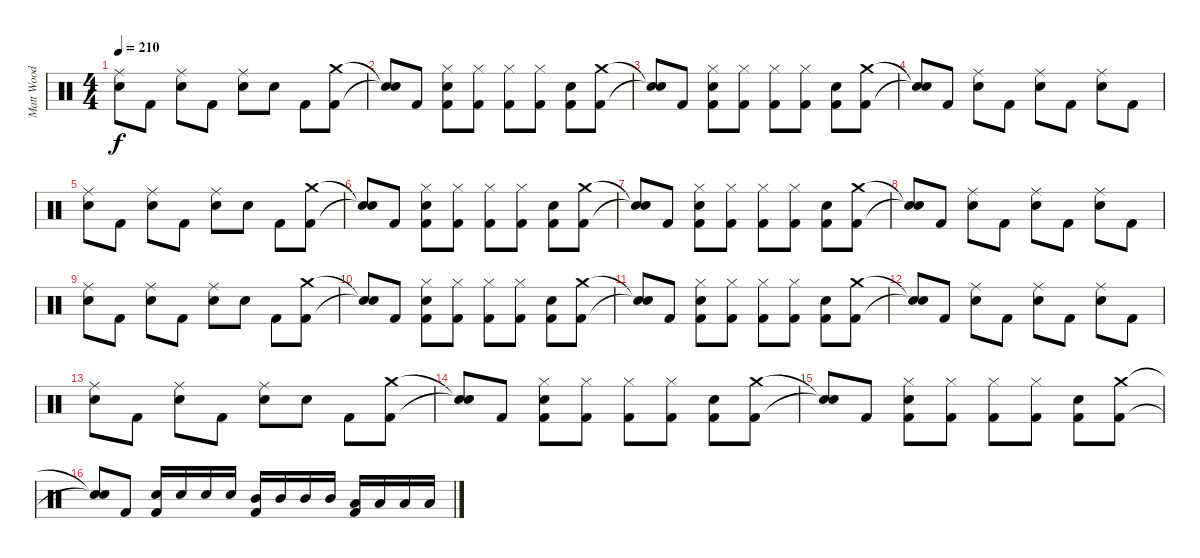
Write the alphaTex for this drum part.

\track ("Matt Wood" "Matt Wood") {instrument percussion}
\staff {score}
\articulation defaults
\ts (4 4)
\tempo 210
\clef neutral
\ks c
("Ride (middle)" "Snare (hit) 2").8{dy f} "Kick (hit) 2".8 ("Ride (middle)" "Snare (hit) 2").8 "Kick (hit) 2".8 ("Ride (middle)" "Snare (hit) 2").8 "Snare (hit) 2".8 "Kick (hit) 2".8 ("Crash medium (hit)" "Kick (hit) 2").8 |
("Snare (hit)"{t} "Snare (hit)"{t}).8 "Kick (hit) 2".8 ("Hi-Hat (closed)" "Snare (hit) 2" "Kick (hit) 2").8 ("Hi-Hat (closed)" "Kick (hit) 2").8 ("Hi-Hat (closed)" "Kick (hit) 2").8 ("Hi-Hat (closed)" "Kick (hit) 2").8 ("Snare (hit) 2" "Kick (hit) 2").8 ("Crash medium (hit)" "Kick (hit) 2").8 |
("Snare (hit)"{t} "Snare (hit)"{t}).8 "Kick (hit) 2".8 ("Hi-Hat (closed)" "Snare (hit) 2" "Kick (hit) 2").8 ("Hi-Hat (closed)" "Kick (hit) 2").8 ("Hi-Hat (closed)" "Kick (hit) 2").8 ("Hi-Hat (closed)" "Kick (hit) 2").8 ("Snare (hit) 2" "Kick (hit) 2").8 ("Crash medium (hit)" "Kick (hit) 2").8 |
("Snare (hit)"{t} "Snare (hit)"{t}).8 "Kick (hit) 2".8 ("Ride (middle)" "Snare (hit) 2").8 "Kick (hit) 2".8 ("Ride (middle)" "Snare (hit) 2").8 "Kick (hit) 2".8 ("Ride (middle)" "Snare (hit) 2").8 "Kick (hit) 2".8 |
("Ride (middle)" "Snare (hit) 2").8 "Kick (hit) 2".8 ("Ride (middle)" "Snare (hit) 2").8 "Kick (hit) 2".8 ("Ride (middle)" "Snare (hit) 2").8 "Snare (hit) 2".8 "Kick (hit) 2".8 ("Crash medium (hit)" "Kick (hit) 2").8 |
("Snare (hit)"{t} "Snare (hit)"{t}).8 "Kick (hit) 2".8 ("Hi-Hat (closed)" "Snare (hit) 2" "Kick (hit) 2").8 ("Hi-Hat (closed)" "Kick (hit) 2").8 ("Hi-Hat (closed)" "Kick (hit) 2").8 ("Hi-Hat (closed)" "Kick (hit) 2").8 ("Snare (hit) 2" "Kick (hit) 2").8 ("Crash medium (hit)" "Kick (hit) 2").8 |
("Snare (hit)"{t} "Snare (hit)"{t}).8 "Kick (hit) 2".8 ("Hi-Hat (closed)" "Snare (hit) 2" "Kick (hit) 2").8 ("Hi-Hat (closed)" "Kick (hit) 2").8 ("Hi-Hat (closed)" "Kick (hit) 2").8 ("Hi-Hat (closed)" "Kick (hit) 2").8 ("Snare (hit) 2" "Kick (hit) 2").8 ("Crash medium (hit)" "Kick (hit) 2").8 |
("Snare (hit)"{t} "Snare (hit)"{t}).8 "Kick (hit) 2".8 ("Ride (middle)" "Snare (hit) 2").8 "Kick (hit) 2".8 ("Ride (middle)" "Snare (hit) 2").8 "Kick (hit) 2".8 ("Ride (middle)" "Snare (hit) 2").8 "Kick (hit) 2".8 |
("Ride (middle)" "Snare (hit) 2").8 "Kick (hit) 2".8 ("Ride (middle)" "Snare (hit) 2").8 "Kick (hit) 2".8 ("Ride (middle)" "Snare (hit) 2").8 "Snare (hit) 2".8 "Kick (hit) 2".8 ("Crash medium (hit)" "Kick (hit) 2").8 |
("Snare (hit)"{t} "Snare (hit)"{t}).8 "Kick (hit) 2".8 ("Hi-Hat (closed)" "Snare (hit) 2" "Kick (hit) 2").8 ("Hi-Hat (closed)" "Kick (hit) 2").8 ("Hi-Hat (closed)" "Kick (hit) 2").8 ("Hi-Hat (closed)" "Kick (hit) 2").8 ("Snare (hit) 2" "Kick (hit) 2").8 ("Crash medium (hit)" "Kick (hit) 2").8 |
("Snare (hit)"{t} "Snare (hit)"{t}).8 "Kick (hit) 2".8 ("Hi-Hat (closed)" "Snare (hit) 2" "Kick (hit) 2").8 ("Hi-Hat (closed)" "Kick (hit) 2").8 ("Hi-Hat (closed)" "Kick (hit) 2").8 ("Hi-Hat (closed)" "Kick (hit) 2").8 ("Snare (hit) 2" "Kick (hit) 2").8 ("Crash medium (hit)" "Kick (hit) 2").8 |
("Snare (hit)"{t} "Snare (hit)"{t}).8 "Kick (hit) 2".8 ("Ride (middle)" "Snare (hit) 2").8 "Kick (hit) 2".8 ("Ride (middle)" "Snare (hit) 2").8 "Kick (hit) 2".8 ("Ride (middle)" "Snare (hit) 2").8 "Kick (hit) 2".8 |
("Ride (middle)" "Snare (hit) 2").8 "Kick (hit) 2".8 ("Ride (middle)" "Snare (hit) 2").8 "Kick (hit) 2".8 ("Ride (middle)" "Snare (hit) 2").8 "Snare (hit) 2".8 "Kick (hit) 2".8 ("Crash medium (hit)" "Kick (hit) 2").8 |
("Snare (hit)"{t} "Snare (hit)"{t}).8 "Kick (hit) 2".8 ("Hi-Hat (closed)" "Snare (hit) 2" "Kick (hit) 2").8 ("Hi-Hat (closed)" "Kick (hit) 2").8 ("Hi-Hat (closed)" "Kick (hit) 2").8 ("Hi-Hat (closed)" "Kick (hit) 2").8 ("Snare (hit) 2" "Kick (hit) 2").8 ("Crash medium (hit)" "Kick (hit) 2").8 |
("Snare (hit)"{t} "Snare (hit)"{t}).8 "Kick (hit) 2".8 ("Hi-Hat (closed)" "Snare (hit) 2" "Kick (hit) 2").8 ("Hi-Hat (closed)" "Kick (hit) 2").8 ("Hi-Hat (closed)" "Kick (hit) 2").8 ("Hi-Hat (closed)" "Kick (hit) 2").8 ("Snare (hit) 2" "Kick (hit) 2").8 ("Crash medium (hit)" "Kick (hit) 2").8 |
("Snare (hit)"{t} "Snare (hit)"{t}).8 "Kick (hit) 2".8 ("Snare (hit) 2" "Kick (hit) 2").16 "Snare (hit) 2".16 "Snare (hit) 2".16 "Snare (hit) 2".16 ("Mid Tom (hit)" "Kick (hit) 2").16 "Mid Tom (hit)".16 "Mid Tom (hit)".16 "Mid Tom (hit)".16 ("Low Tom (hit)" "Kick (hit) 2").16 "Low Tom (hit)".16 "Low Tom (hit)".16 "Low Tom (hit)".16
